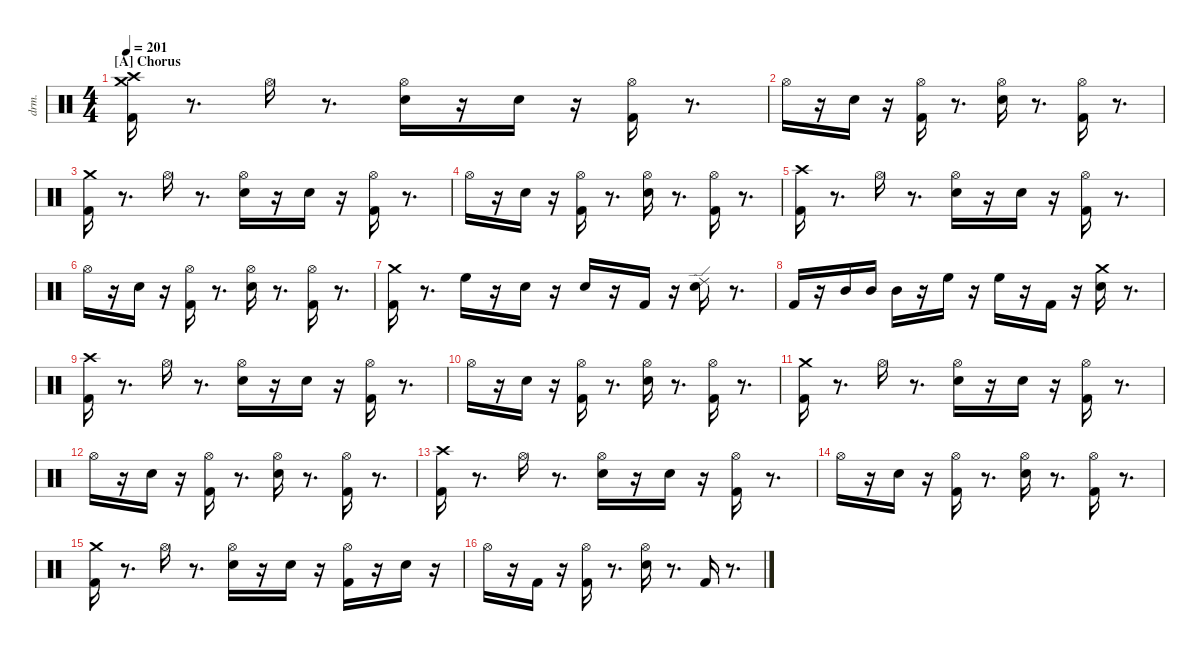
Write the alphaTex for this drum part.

\defaultSystemsLayout 4
\hideDynamics
\bracketExtendMode nobrackets
\otherSystemsTrackNameOrientation horizontal
\track ("Drums" "drm.") {instrument percussion}
\staff {score}
\articulation defaults
\ts (4 4)
\section ("A" "Chorus")
\tempo 201
\clef neutral
\ks aminor
("Kick (hit) 2" "Crash high (hit)"{acc #} "Crash medium (hit)").16{dy ff beam Down} r.8{d beam Down} "Hi-Hat (open)"{acc #}.16{dy f beam Down} r.8{d beam Down} ("Snare (hit) 2" "Hi-Hat (open)"{acc #}).16{dy ff beam Down} r.16{beam Down} "Snare (hit) 2".16{dy mf beam Down} r.16{beam Down} ("Kick (hit) 2" "Hi-Hat (open)"{acc #}).16{dy ff beam Down} r.8{d beam Down} |
"Hi-Hat (open)"{acc #}.16{dy fff beam Down} r.16{beam Down} "Snare (hit) 2".16{dy ppp beam Down} r.16{beam Down} ("Kick (hit) 2" "Hi-Hat (open)"{acc #}).16{dy ff beam Down} r.8{d beam Down} ("Snare (hit) 2" "Hi-Hat (open)"{acc #}).16{beam Down} r.8{d beam Down} ("Kick (hit) 2" "Hi-Hat (open)"{acc #}).16{beam Down} r.8{d beam Down} |
("Kick (hit) 2" "Crash medium (hit)").16{beam Down} r.8{d beam Down} "Hi-Hat (open)"{acc #}.16{dy f beam Down} r.8{d beam Down} ("Snare (hit) 2" "Hi-Hat (open)"{acc #}).16{dy ff beam Down} r.16{beam Down} "Snare (hit) 2".16{dy mf beam Down} r.16{beam Down} ("Kick (hit) 2" "Hi-Hat (open)"{acc #}).16{dy ff beam Down} r.8{d beam Down} |
"Hi-Hat (open)"{acc #}.16{dy fff beam Down} r.16{beam Down} "Snare (hit) 2".16{dy ppp beam Down} r.16{beam Down} ("Kick (hit) 2" "Hi-Hat (open)"{acc #}).16{dy ff beam Down} r.8{d beam Down} ("Snare (hit) 2" "Hi-Hat (open)"{acc #}).16{beam Down} r.8{d beam Down} ("Kick (hit) 2" "Hi-Hat (open)"{acc #}).16{beam Down} r.8{d beam Down} |
("Kick (hit) 2" "Crash high (hit)"{acc #}).16{beam Down} r.8{d beam Down} "Hi-Hat (open)"{acc #}.16{dy f beam Down} r.8{d beam Down} ("Snare (hit) 2" "Hi-Hat (open)"{acc #}).16{dy ff beam Down} r.16{beam Down} "Snare (hit) 2".16{dy mf beam Down} r.16{beam Down} ("Kick (hit) 2" "Hi-Hat (open)"{acc #}).16{dy ff beam Down} r.8{d beam Down} |
"Hi-Hat (open)"{acc #}.16{dy fff beam Down} r.16{beam Down} "Snare (hit) 2".16{dy ppp beam Down} r.16{beam Down} ("Kick (hit) 2" "Hi-Hat (open)"{acc #}).16{dy ff beam Down} r.8{d beam Down} ("Snare (hit) 2" "Hi-Hat (open)"{acc #}).16{beam Down} r.8{d beam Down} ("Kick (hit) 2" "Hi-Hat (open)"{acc #}).16{beam Down} r.8{d beam Down} |
("Kick (hit) 2" "Crash medium (hit)").16{beam Down} r.8{d beam Down} "High Floor Tom (hit)".16{beam Down} r.16{beam Down} "Snare (hit) 2".16{beam Down} r.16{beam Down} "Snare (hit) 2".16{dy mf beam Up} r.16{beam Up} "Kick (hit) 2".16{dy ff beam Up} r.16{beam Up} ("Snare (hit) 2" "Ride (edge) 2").16{dy f beam Down} r.8{d beam Down} |
"Kick (hit) 2".16{dy ff beam Up} r.16{beam Up} "Mid Tom (hit)".16{beam Up} "Mid Tom (hit)".16{dy mp beam Up} "Mid Tom (hit)".16{dy f beam Down} r.16{beam Down} "High Floor Tom (hit)".16{dy ff beam Down} r.16{beam Down} "High Floor Tom (hit)".16{beam Down} r.16{beam Down} "Kick (hit) 2".16{beam Down} r.16{beam Down} ("Snare (hit) 2" "Crash medium (hit)").16{dy fff beam Down} r.8{d beam Down} |
("Kick (hit) 2" "Crash high (hit)"{acc #}).16{dy ff beam Down} r.8{d beam Down} "Hi-Hat (open)"{acc #}.16{dy f beam Down} r.8{d beam Down} ("Snare (hit) 2" "Hi-Hat (open)"{acc #}).16{dy ff beam Down} r.16{beam Down} "Snare (hit) 2".16{dy mf beam Down} r.16{beam Down} ("Kick (hit) 2" "Hi-Hat (open)"{acc #}).16{dy ff beam Down} r.8{d beam Down} |
"Hi-Hat (open)"{acc #}.16{dy fff beam Down} r.16{beam Down} "Snare (hit) 2".16{dy ppp beam Down} r.16{beam Down} ("Kick (hit) 2" "Hi-Hat (open)"{acc #}).16{dy ff beam Down} r.8{d beam Down} ("Snare (hit) 2" "Hi-Hat (open)"{acc #}).16{beam Down} r.8{d beam Down} ("Kick (hit) 2" "Hi-Hat (open)"{acc #}).16{beam Down} r.8{d beam Down} |
("Kick (hit) 2" "Crash medium (hit)").16{beam Down} r.8{d beam Down} "Hi-Hat (open)"{acc #}.16{dy f beam Down} r.8{d beam Down} ("Snare (hit) 2" "Hi-Hat (open)"{acc #}).16{dy ff beam Down} r.16{beam Down} "Snare (hit) 2".16{dy mf beam Down} r.16{beam Down} ("Kick (hit) 2" "Hi-Hat (open)"{acc #}).16{dy ff beam Down} r.8{d beam Down} |
"Hi-Hat (open)"{acc #}.16{dy fff beam Down} r.16{beam Down} "Snare (hit) 2".16{dy ppp beam Down} r.16{beam Down} ("Kick (hit) 2" "Hi-Hat (open)"{acc #}).16{dy ff beam Down} r.8{d beam Down} ("Snare (hit) 2" "Hi-Hat (open)"{acc #}).16{beam Down} r.8{d beam Down} ("Kick (hit) 2" "Hi-Hat (open)"{acc #}).16{beam Down} r.8{d beam Down} |
("Kick (hit) 2" "Crash high (hit)"{acc #}).16{beam Down} r.8{d beam Down} "Hi-Hat (open)"{acc #}.16{dy f beam Down} r.8{d beam Down} ("Snare (hit) 2" "Hi-Hat (open)"{acc #}).16{dy ff beam Down} r.16{beam Down} "Snare (hit) 2".16{dy mf beam Down} r.16{beam Down} ("Kick (hit) 2" "Hi-Hat (open)"{acc #}).16{dy ff beam Down} r.8{d beam Down} |
"Hi-Hat (open)"{acc #}.16{dy fff beam Down} r.16{beam Down} "Snare (hit) 2".16{dy ppp beam Down} r.16{beam Down} ("Kick (hit) 2" "Hi-Hat (open)"{acc #}).16{dy ff beam Down} r.8{d beam Down} ("Snare (hit) 2" "Hi-Hat (open)"{acc #}).16{beam Down} r.8{d beam Down} ("Kick (hit) 2" "Hi-Hat (open)"{acc #}).16{beam Down} r.8{d beam Down} |
("Kick (hit) 2" "Crash medium (hit)").16{beam Down} r.8{d beam Down} "Hi-Hat (open)"{acc #}.16{dy f beam Down} r.8{d beam Down} ("Snare (hit) 2" "Hi-Hat (open)"{acc #}).16{dy ff beam Down} r.16{beam Down} "Snare (hit) 2".16{dy mf beam Down} r.16{beam Down} ("Kick (hit) 2" "Hi-Hat (open)"{acc #}).16{dy ff beam Down} r.16{beam Down} "Snare (hit) 2".16{beam Down} r.16{beam Down} |
"Hi-Hat (open)"{acc #}.16{dy fff beam Down} r.16{beam Down} "Kick (hit) 2".16{dy mf beam Down} r.16{beam Down} ("Kick (hit) 2" "Hi-Hat (open)"{acc #}).16{dy ff beam Down} r.8{d beam Down} ("Snare (hit) 2" "Hi-Hat (open)"{acc #}).16{beam Down} r.8{d beam Down} "Kick (hit) 2".16{dy mf beam Up} r.8{d beam Up}
